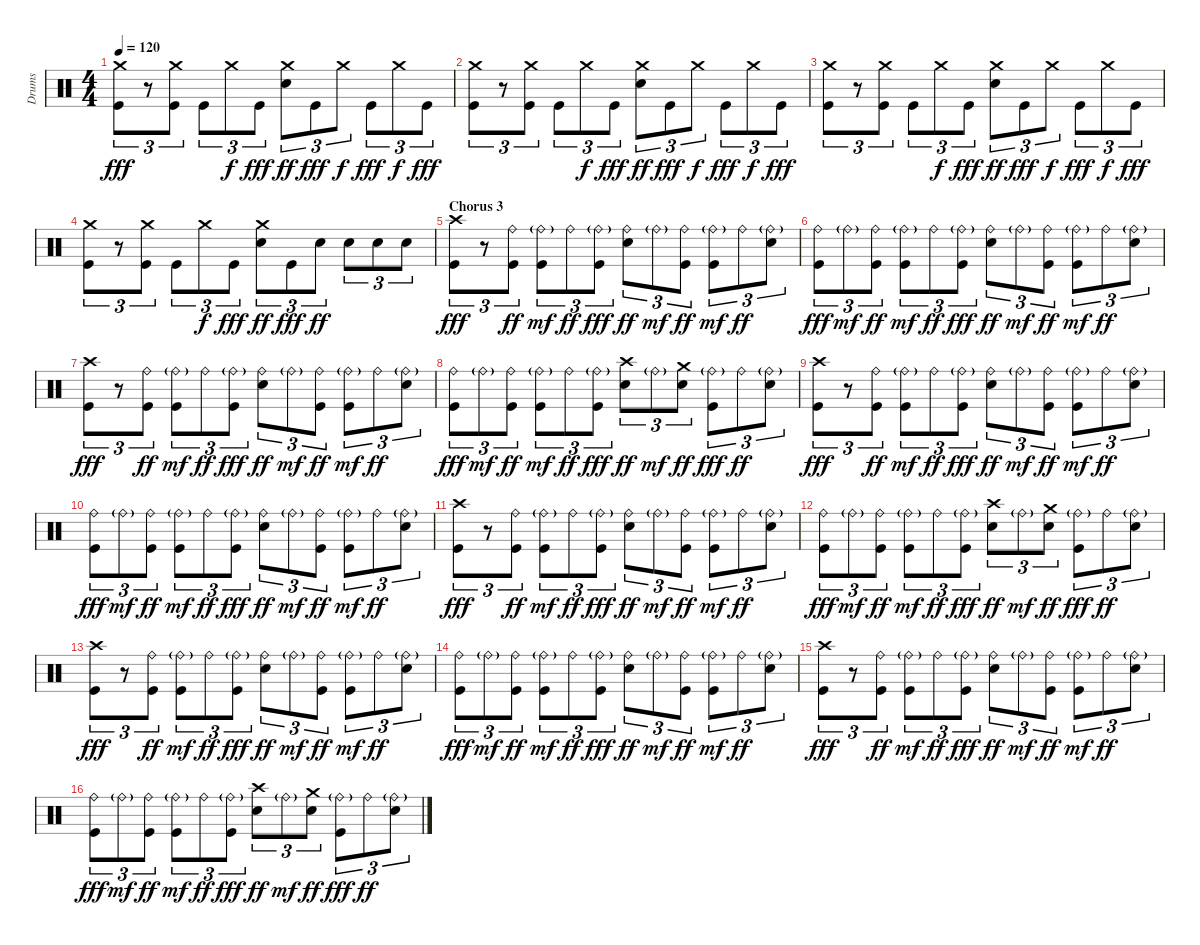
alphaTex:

\track ("Drums" "Drums") {instrument percussion}
\staff {score}
\articulation defaults
\ts (4 4)
\tempo 120
\clef neutral
\ks c
("Crash medium (hit)" "Kick (hit)").8{tu (3 2) dy fff} r.8{tu (3 2)} ("Crash medium (hit)" "Kick (hit)").8{tu (3 2)} "Kick (hit)".8{tu (3 2)} "Crash medium (hit)".8{tu (3 2) dy f} "Kick (hit)".8{tu (3 2) dy fff} ("Crash medium (hit)" "Snare (hit) 2").8{tu (3 2) dy ff} "Kick (hit)".8{tu (3 2) dy fff} "Crash medium (hit)".8{tu (3 2) dy f} "Kick (hit)".8{tu (3 2) dy fff} "Crash medium (hit)".8{tu (3 2) dy f} "Kick (hit)".8{tu (3 2) dy fff} |
("Crash medium (hit)" "Kick (hit)").8{tu (3 2)} r.8{tu (3 2)} ("Crash medium (hit)" "Kick (hit)").8{tu (3 2)} "Kick (hit)".8{tu (3 2)} "Crash medium (hit)".8{tu (3 2) dy f} "Kick (hit)".8{tu (3 2) dy fff} ("Crash medium (hit)" "Snare (hit) 2").8{tu (3 2) dy ff} "Kick (hit)".8{tu (3 2) dy fff} "Crash medium (hit)".8{tu (3 2) dy f} "Kick (hit)".8{tu (3 2) dy fff} "Crash medium (hit)".8{tu (3 2) dy f} "Kick (hit)".8{tu (3 2) dy fff} |
("Crash medium (hit)" "Kick (hit)").8{tu (3 2)} r.8{tu (3 2)} ("Crash medium (hit)" "Kick (hit)").8{tu (3 2)} "Kick (hit)".8{tu (3 2)} "Crash medium (hit)".8{tu (3 2) dy f} "Kick (hit)".8{tu (3 2) dy fff} ("Crash medium (hit)" "Snare (hit) 2").8{tu (3 2) dy ff} "Kick (hit)".8{tu (3 2) dy fff} "Crash medium (hit)".8{tu (3 2) dy f} "Kick (hit)".8{tu (3 2) dy fff} "Crash medium (hit)".8{tu (3 2) dy f} "Kick (hit)".8{tu (3 2) dy fff} |
("Crash medium (hit)" "Kick (hit)").8{tu (3 2)} r.8{tu (3 2)} ("Crash medium (hit)" "Kick (hit)").8{tu (3 2)} "Kick (hit)".8{tu (3 2)} "Crash medium (hit)".8{tu (3 2) dy f} "Kick (hit)".8{tu (3 2) dy fff} ("Crash medium (hit)" "Snare (hit) 2").8{tu (3 2) dy ff} "Kick (hit)".8{tu (3 2) dy fff} "Snare (hit) 2".8{tu (3 2) dy ff} "Snare (hit) 2".8{tu (3 2)} "Snare (hit) 2".8{tu (3 2)} "Snare (hit) 2".8{tu (3 2)} |
\section ("" "Chorus 3")
("Crash high (hit)" "Kick (hit)").8{tu (3 2) dy fff} r.8{tu (3 2)} ("Ride (bell)" "Kick (hit)").8{tu (3 2) dy ff} ("Ride (bell)"{g} "Kick (hit)").8{tu (3 2) dy mf} "Ride (bell)".8{tu (3 2) dy ff} ("Ride (bell)"{g} "Kick (hit)").8{tu (3 2) dy fff} ("Ride (bell)" "Snare (hit) 2").8{tu (3 2) dy ff} "Ride (bell)"{g}.8{tu (3 2) dy mf} ("Ride (bell)" "Kick (hit)").8{tu (3 2) dy ff} ("Ride (bell)"{g} "Kick (hit)").8{tu (3 2) dy mf} "Ride (bell)".8{tu (3 2) dy ff} ("Ride (bell)"{g} "Snare (hit) 2").8{tu (3 2)} |
("Ride (bell)" "Kick (hit)").8{tu (3 2) dy fff} "Ride (bell)"{g}.8{tu (3 2) dy mf} ("Ride (bell)" "Kick (hit)").8{tu (3 2) dy ff} ("Ride (bell)"{g} "Kick (hit)").8{tu (3 2) dy mf} "Ride (bell)".8{tu (3 2) dy ff} ("Ride (bell)"{g} "Kick (hit)").8{tu (3 2) dy fff} ("Ride (bell)" "Snare (hit) 2").8{tu (3 2) dy ff} "Ride (bell)"{g}.8{tu (3 2) dy mf} ("Ride (bell)" "Kick (hit)").8{tu (3 2) dy ff} ("Ride (bell)"{g} "Kick (hit)").8{tu (3 2) dy mf} "Ride (bell)".8{tu (3 2) dy ff} ("Ride (bell)"{g} "Snare (hit) 2").8{tu (3 2)} |
("Crash high (hit)" "Kick (hit)").8{tu (3 2) dy fff} r.8{tu (3 2)} ("Ride (bell)" "Kick (hit)").8{tu (3 2) dy ff} ("Ride (bell)"{g} "Kick (hit)").8{tu (3 2) dy mf} "Ride (bell)".8{tu (3 2) dy ff} ("Ride (bell)"{g} "Kick (hit)").8{tu (3 2) dy fff} ("Ride (bell)" "Snare (hit) 2").8{tu (3 2) dy ff} "Ride (bell)"{g}.8{tu (3 2) dy mf} ("Ride (bell)" "Kick (hit)").8{tu (3 2) dy ff} ("Ride (bell)"{g} "Kick (hit)").8{tu (3 2) dy mf} "Ride (bell)".8{tu (3 2) dy ff} ("Ride (bell)"{g} "Snare (hit) 2").8{tu (3 2)} |
("Ride (bell)" "Kick (hit)").8{tu (3 2) dy fff} "Ride (bell)"{g}.8{tu (3 2) dy mf} ("Ride (bell)" "Kick (hit)").8{tu (3 2) dy ff} ("Ride (bell)"{g} "Kick (hit)").8{tu (3 2) dy mf} "Ride (bell)".8{tu (3 2) dy ff} ("Ride (bell)"{g} "Kick (hit)").8{tu (3 2) dy fff} ("Crash high (hit)" "Snare (hit) 2").8{tu (3 2) dy ff} "Ride (bell)"{g}.8{tu (3 2) dy mf} ("Crash medium (hit)" "Snare (hit) 2").8{tu (3 2) dy ff} ("Ride (bell)"{g} "Kick (hit)").8{tu (3 2) dy fff} "Ride (bell)".8{tu (3 2) dy ff} ("Ride (bell)"{g} "Snare (hit) 2").8{tu (3 2)} |
("Crash high (hit)" "Kick (hit)").8{tu (3 2) dy fff} r.8{tu (3 2)} ("Ride (bell)" "Kick (hit)").8{tu (3 2) dy ff} ("Ride (bell)"{g} "Kick (hit)").8{tu (3 2) dy mf} "Ride (bell)".8{tu (3 2) dy ff} ("Ride (bell)"{g} "Kick (hit)").8{tu (3 2) dy fff} ("Ride (bell)" "Snare (hit) 2").8{tu (3 2) dy ff} "Ride (bell)"{g}.8{tu (3 2) dy mf} ("Ride (bell)" "Kick (hit)").8{tu (3 2) dy ff} ("Ride (bell)"{g} "Kick (hit)").8{tu (3 2) dy mf} "Ride (bell)".8{tu (3 2) dy ff} ("Ride (bell)"{g} "Snare (hit) 2").8{tu (3 2)} |
("Ride (bell)" "Kick (hit)").8{tu (3 2) dy fff} "Ride (bell)"{g}.8{tu (3 2) dy mf} ("Ride (bell)" "Kick (hit)").8{tu (3 2) dy ff} ("Ride (bell)"{g} "Kick (hit)").8{tu (3 2) dy mf} "Ride (bell)".8{tu (3 2) dy ff} ("Ride (bell)"{g} "Kick (hit)").8{tu (3 2) dy fff} ("Ride (bell)" "Snare (hit) 2").8{tu (3 2) dy ff} "Ride (bell)"{g}.8{tu (3 2) dy mf} ("Ride (bell)" "Kick (hit)").8{tu (3 2) dy ff} ("Ride (bell)"{g} "Kick (hit)").8{tu (3 2) dy mf} "Ride (bell)".8{tu (3 2) dy ff} ("Ride (bell)"{g} "Snare (hit) 2").8{tu (3 2)} |
("Crash high (hit)" "Kick (hit)").8{tu (3 2) dy fff} r.8{tu (3 2)} ("Ride (bell)" "Kick (hit)").8{tu (3 2) dy ff} ("Ride (bell)"{g} "Kick (hit)").8{tu (3 2) dy mf} "Ride (bell)".8{tu (3 2) dy ff} ("Ride (bell)"{g} "Kick (hit)").8{tu (3 2) dy fff} ("Ride (bell)" "Snare (hit) 2").8{tu (3 2) dy ff} "Ride (bell)"{g}.8{tu (3 2) dy mf} ("Ride (bell)" "Kick (hit)").8{tu (3 2) dy ff} ("Ride (bell)"{g} "Kick (hit)").8{tu (3 2) dy mf} "Ride (bell)".8{tu (3 2) dy ff} ("Ride (bell)"{g} "Snare (hit) 2").8{tu (3 2)} |
("Ride (bell)" "Kick (hit)").8{tu (3 2) dy fff} "Ride (bell)"{g}.8{tu (3 2) dy mf} ("Ride (bell)" "Kick (hit)").8{tu (3 2) dy ff} ("Ride (bell)"{g} "Kick (hit)").8{tu (3 2) dy mf} "Ride (bell)".8{tu (3 2) dy ff} ("Ride (bell)"{g} "Kick (hit)").8{tu (3 2) dy fff} ("Crash high (hit)" "Snare (hit) 2").8{tu (3 2) dy ff} "Ride (bell)"{g}.8{tu (3 2) dy mf} ("Crash medium (hit)" "Snare (hit) 2").8{tu (3 2) dy ff} ("Ride (bell)"{g} "Kick (hit)").8{tu (3 2) dy fff} "Ride (bell)".8{tu (3 2) dy ff} ("Ride (bell)"{g} "Snare (hit) 2").8{tu (3 2)} |
("Crash high (hit)" "Kick (hit)").8{tu (3 2) dy fff} r.8{tu (3 2)} ("Ride (bell)" "Kick (hit)").8{tu (3 2) dy ff} ("Ride (bell)"{g} "Kick (hit)").8{tu (3 2) dy mf} "Ride (bell)".8{tu (3 2) dy ff} ("Ride (bell)"{g} "Kick (hit)").8{tu (3 2) dy fff} ("Ride (bell)" "Snare (hit) 2").8{tu (3 2) dy ff} "Ride (bell)"{g}.8{tu (3 2) dy mf} ("Ride (bell)" "Kick (hit)").8{tu (3 2) dy ff} ("Ride (bell)"{g} "Kick (hit)").8{tu (3 2) dy mf} "Ride (bell)".8{tu (3 2) dy ff} ("Ride (bell)"{g} "Snare (hit) 2").8{tu (3 2)} |
("Ride (bell)" "Kick (hit)").8{tu (3 2) dy fff} "Ride (bell)"{g}.8{tu (3 2) dy mf} ("Ride (bell)" "Kick (hit)").8{tu (3 2) dy ff} ("Ride (bell)"{g} "Kick (hit)").8{tu (3 2) dy mf} "Ride (bell)".8{tu (3 2) dy ff} ("Ride (bell)"{g} "Kick (hit)").8{tu (3 2) dy fff} ("Ride (bell)" "Snare (hit) 2").8{tu (3 2) dy ff} "Ride (bell)"{g}.8{tu (3 2) dy mf} ("Ride (bell)" "Kick (hit)").8{tu (3 2) dy ff} ("Ride (bell)"{g} "Kick (hit)").8{tu (3 2) dy mf} "Ride (bell)".8{tu (3 2) dy ff} ("Ride (bell)"{g} "Snare (hit) 2").8{tu (3 2)} |
("Crash high (hit)" "Kick (hit)").8{tu (3 2) dy fff} r.8{tu (3 2)} ("Ride (bell)" "Kick (hit)").8{tu (3 2) dy ff} ("Ride (bell)"{g} "Kick (hit)").8{tu (3 2) dy mf} "Ride (bell)".8{tu (3 2) dy ff} ("Ride (bell)"{g} "Kick (hit)").8{tu (3 2) dy fff} ("Ride (bell)" "Snare (hit) 2").8{tu (3 2) dy ff} "Ride (bell)"{g}.8{tu (3 2) dy mf} ("Ride (bell)" "Kick (hit)").8{tu (3 2) dy ff} ("Ride (bell)"{g} "Kick (hit)").8{tu (3 2) dy mf} "Ride (bell)".8{tu (3 2) dy ff} ("Ride (bell)"{g} "Snare (hit) 2").8{tu (3 2)} |
("Ride (bell)" "Kick (hit)").8{tu (3 2) dy fff} "Ride (bell)"{g}.8{tu (3 2) dy mf} ("Ride (bell)" "Kick (hit)").8{tu (3 2) dy ff} ("Ride (bell)"{g} "Kick (hit)").8{tu (3 2) dy mf} "Ride (bell)".8{tu (3 2) dy ff} ("Ride (bell)"{g} "Kick (hit)").8{tu (3 2) dy fff} ("Crash high (hit)" "Snare (hit) 2").8{tu (3 2) dy ff} "Ride (bell)"{g}.8{tu (3 2) dy mf} ("Crash medium (hit)" "Snare (hit) 2").8{tu (3 2) dy ff} ("Ride (bell)"{g} "Kick (hit)").8{tu (3 2) dy fff} "Ride (bell)".8{tu (3 2) dy ff} ("Ride (bell)"{g} "Snare (hit) 2").8{tu (3 2)}
